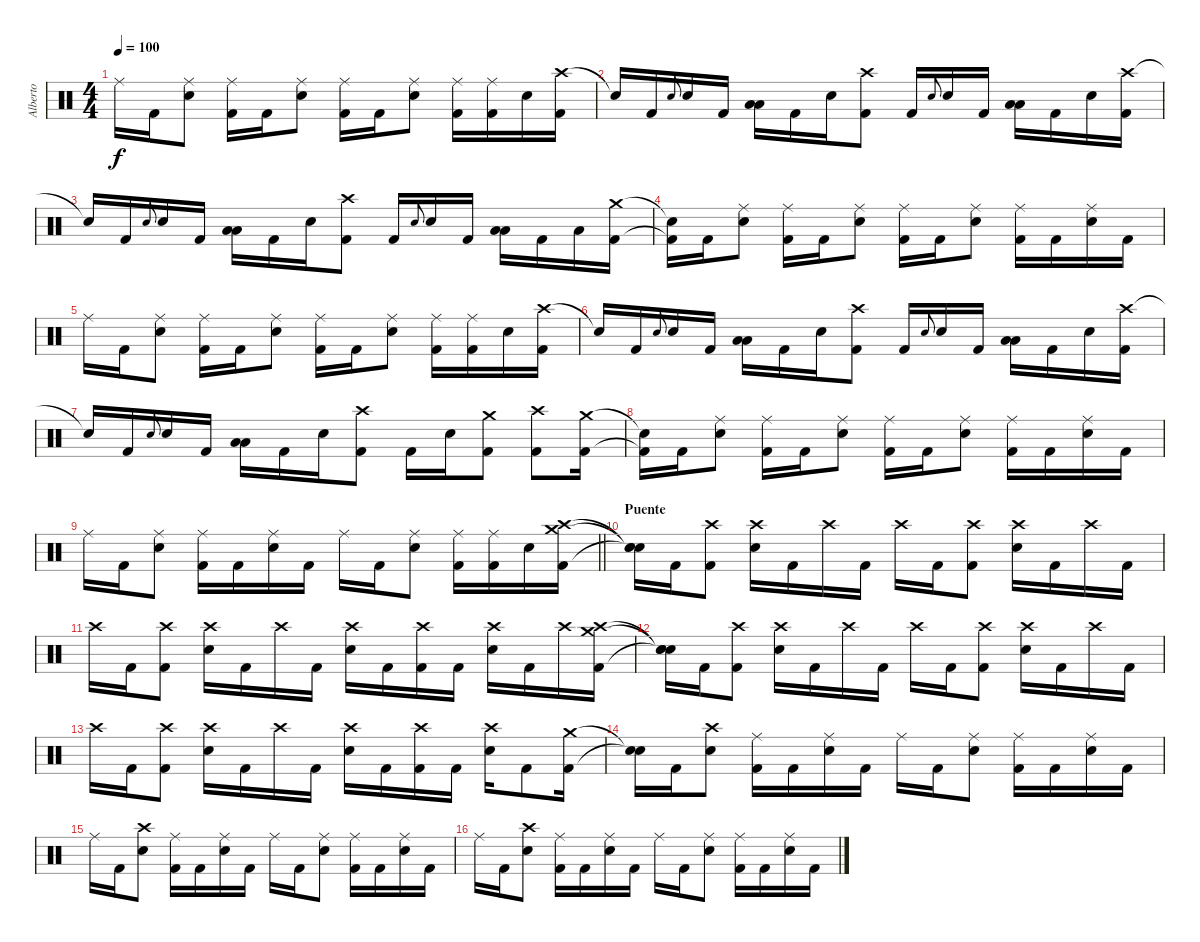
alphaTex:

\track ("Alberto" "Alberto") {instrument percussion}
\staff
\articulation defaults
\ts (4 4)
\tempo 100
\clef neutral
\ks c "Ride (middle)".16{dy f} "Kick (hit) 2".16
("Ride (middle)" "Electric Snare (hit)").8 ("Ride (middle)" "Kick (hit) 2").16 "Kick (hit) 2".16 ("Ride (middle)" "Electric Snare (hit)").8 ("Ride (middle)" "Kick (hit) 2").16 "Kick (hit) 2".16 ("Ride (middle)" "Electric Snare (hit)").8 ("Ride (middle)" "Kick (hit) 2").16 ("Ride (middle)" "Kick (hit) 2").16 "Electric Snare (hit)".16 ("Crash high (hit)" "Kick (hit) 2").16 |
"Snare (hit)"{t}.16 "Kick (hit) 2".16 "Electric Snare (hit)".8{gr onbeat} "Electric Snare (hit)".16 "Kick (hit) 2".16 ("Low Tom (hit)" "Low Floor Tom (hit)").16 "Kick (hit) 2".16 "Electric Snare (hit)".16 ("Crash high (hit)" "Kick (hit) 2").8 "Kick (hit) 2".16 "Electric Snare (hit)".8{gr onbeat} "Electric Snare (hit)".16 "Kick (hit) 2".16 ("Low Tom (hit)" "Low Floor Tom (hit)").16 "Kick (hit) 2".16 "Electric Snare (hit)".16 ("Crash high (hit)" "Kick (hit) 2").16 |
"Snare (hit)"{t}.16 "Kick (hit) 2".16 "Electric Snare (hit)".8{gr onbeat} "Electric Snare (hit)".16 "Kick (hit) 2".16 ("Low Tom (hit)" "Low Floor Tom (hit)").16 "Kick (hit) 2".16 "Electric Snare (hit)".16 ("Crash high (hit)" "Kick (hit) 2").8 "Kick (hit) 2".16 "Electric Snare (hit)".8{gr onbeat} "Electric Snare (hit)".16 "Kick (hit) 2".16 ("Low Tom (hit)" "Low Floor Tom (hit)").16 "Kick (hit) 2".16 "Low Tom (hit)".16 ("Crash medium (hit)" "Kick (hit) 2").16 |
("Snare (hit)"{t} "Kick (hit) 2"{t}).16 "Kick (hit) 2".16 ("Ride (middle)" "Electric Snare (hit)").8 ("Ride (middle)" "Kick (hit) 2").16 "Kick (hit) 2".16 ("Ride (middle)" "Electric Snare (hit)").8 ("Ride (middle)" "Kick (hit) 2").16 "Kick (hit) 2".16 ("Ride (middle)" "Electric Snare (hit)").8 ("Ride (middle)" "Kick (hit) 2").16 "Kick (hit) 2".16 ("Ride (middle)" "Electric Snare (hit)").16 "Kick (hit) 2".16 |
"Ride (middle)".16 "Kick (hit) 2".16 ("Ride (middle)" "Electric Snare (hit)").8 ("Ride (middle)" "Kick (hit) 2").16 "Kick (hit) 2".16 ("Ride (middle)" "Electric Snare (hit)").8 ("Ride (middle)" "Kick (hit) 2").16 "Kick (hit) 2".16 ("Ride (middle)" "Electric Snare (hit)").8 ("Ride (middle)" "Kick (hit) 2").16 ("Ride (middle)" "Kick (hit) 2").16 "Electric Snare (hit)".16 ("Crash high (hit)" "Kick (hit) 2").16 |
"Snare (hit)"{t}.16 "Kick (hit) 2".16 "Electric Snare (hit)".8{gr onbeat} "Electric Snare (hit)".16 "Kick (hit) 2".16 ("Low Tom (hit)" "Low Floor Tom (hit)").16 "Kick (hit) 2".16 "Electric Snare (hit)".16 ("Crash high (hit)" "Kick (hit) 2").8 "Kick (hit) 2".16 "Electric Snare (hit)".8{gr onbeat} "Electric Snare (hit)".16 "Kick (hit) 2".16 ("Low Tom (hit)" "Low Floor Tom (hit)").16 "Kick (hit) 2".16 "Electric Snare (hit)".16 ("Crash high (hit)" "Kick (hit) 2").16 |
"Snare (hit)"{t}.16 "Kick (hit) 2".16 "Electric Snare (hit)".8{gr onbeat} "Electric Snare (hit)".16 "Kick (hit) 2".16 ("Low Tom (hit)" "Low Floor Tom (hit)").16 "Kick (hit) 2".16 "Electric Snare (hit)".16 ("Crash high (hit)" "Kick (hit) 2").8 "Kick (hit) 2".16 "Electric Snare (hit)".16 ("Crash medium (hit)" "Kick (hit) 2").8 ("Crash high (hit)" "Kick (hit) 2").8 ("Crash medium (hit)" "Kick (hit) 2").16 |
("Snare (hit)"{t} "Kick (hit) 2"{t}).16 "Kick (hit) 2".16 ("Ride (middle)" "Electric Snare (hit)").8 ("Ride (middle)" "Kick (hit) 2").16 "Kick (hit) 2".16 ("Ride (middle)" "Electric Snare (hit)").8 ("Ride (middle)" "Kick (hit) 2").16 "Kick (hit) 2".16 ("Ride (middle)" "Electric Snare (hit)").8 ("Ride (middle)" "Kick (hit) 2").16 "Kick (hit) 2".16 ("Ride (middle)" "Electric Snare (hit)").16 "Kick (hit) 2".16 |
\barLineRight lightlight "Ride (middle)".16 "Kick (hit) 2".16
("Ride (middle)" "Electric Snare (hit)").8 ("Ride (middle)" "Kick (hit) 2").16 "Kick (hit) 2".16 ("Ride (middle)" "Electric Snare (hit)").16 "Kick (hit) 2".16 "Ride (middle)".16 "Kick (hit) 2".16 ("Ride (middle)" "Electric Snare (hit)").8 ("Ride (middle)" "Kick (hit) 2").16 ("Ride (middle)" "Kick (hit) 2").16 "Electric Snare (hit)".16 ("Crash medium (hit)" "Crash high (hit)" "Kick (hit) 2").16 |
\section ("" "Puente")
("Snare (hit)"{t} "Snare (hit)"{t} "Snare (hit)"{t}).16 "Kick (hit) 2".16 ("Crash high (hit)" "Kick (hit) 2").8 ("Crash high (hit)" "Electric Snare (hit)").16 "Kick (hit) 2".16 "Crash high (hit)".16 "Kick (hit) 2".16 "Crash high (hit)".16 "Kick (hit) 2".16 ("Crash high (hit)" "Kick (hit) 2").8 ("Crash high (hit)" "Electric Snare (hit)").16 "Kick (hit) 2".16 "Crash high (hit)".16 "Kick (hit) 2".16 |
"Crash high (hit)".16 "Kick (hit) 2".16 ("Crash high (hit)" "Kick (hit) 2").8 ("Crash high (hit)" "Electric Snare (hit)").16 "Kick (hit) 2".16 "Crash high (hit)".16 "Kick (hit) 2".16 ("Crash high (hit)" "Electric Snare (hit)").16 "Kick (hit) 2".16 ("Crash high (hit)" "Kick (hit) 2").16 "Kick (hit) 2".16 ("Crash high (hit)" "Electric Snare (hit)").16 "Kick (hit) 2".16 "Crash high (hit)".16 ("Crash medium (hit)" "Crash high (hit)" "Kick (hit) 2").16 |
("Snare (hit)"{t} "Snare (hit)"{t} "Snare (hit)"{t}).16 "Kick (hit) 2".16 ("Crash high (hit)" "Kick (hit) 2").8 ("Crash high (hit)" "Electric Snare (hit)").16 "Kick (hit) 2".16 "Crash high (hit)".16 "Kick (hit) 2".16 "Crash high (hit)".16 "Kick (hit) 2".16 ("Crash high (hit)" "Kick (hit) 2").8 ("Crash high (hit)" "Electric Snare (hit)").16 "Kick (hit) 2".16 "Crash high (hit)".16 "Kick (hit) 2".16 |
"Crash high (hit)".16 "Kick (hit) 2".16 ("Crash high (hit)" "Kick (hit) 2").8 ("Crash high (hit)" "Electric Snare (hit)").16 "Kick (hit) 2".16 "Crash high (hit)".16 "Kick (hit) 2".16 ("Crash high (hit)" "Electric Snare (hit)").16 "Kick (hit) 2".16 ("Crash high (hit)" "Kick (hit) 2").16 "Kick (hit) 2".16 ("Crash high (hit)" "Electric Snare (hit)").16 "Kick (hit) 2".8 ("Crash medium (hit)" "Kick (hit) 2").16 |
("Snare (hit)"{t} "Snare (hit)"{t}).16 "Kick (hit) 2".16 ("Crash high (hit)" "Electric Snare (hit)").8 ("Ride (middle)" "Kick (hit) 2").16 "Kick (hit) 2".16 ("Ride (middle)" "Electric Snare (hit)").16 "Kick (hit) 2".16 "Ride (middle)".16 "Kick (hit) 2".16 ("Ride (middle)" "Electric Snare (hit)").8 ("Ride (middle)" "Kick (hit) 2").16 "Kick (hit) 2".16 ("Ride (middle)" "Electric Snare (hit)").16 "Kick (hit) 2".16 |
"Ride (middle)".16 "Kick (hit) 2".16 ("Crash high (hit)" "Electric Snare (hit)").8 ("Ride (middle)" "Kick (hit) 2").16 "Kick (hit) 2".16 ("Ride (middle)" "Electric Snare (hit)").16 "Kick (hit) 2".16 "Ride (middle)".16 "Kick (hit) 2".16 ("Ride (middle)" "Electric Snare (hit)").8 ("Ride (middle)" "Kick (hit) 2").16 "Kick (hit) 2".16 ("Ride (middle)" "Electric Snare (hit)").16 "Kick (hit) 2".16 |
"Ride (middle)".16 "Kick (hit) 2".16 ("Crash high (hit)" "Electric Snare (hit)").8 ("Ride (middle)" "Kick (hit) 2").16 "Kick (hit) 2".16 ("Ride (middle)" "Electric Snare (hit)").16 "Kick (hit) 2".16 "Ride (middle)".16 "Kick (hit) 2".16 ("Ride (middle)" "Electric Snare (hit)").8 ("Ride (middle)" "Kick (hit) 2").16 "Kick (hit) 2".16 ("Ride (middle)" "Electric Snare (hit)").16 "Kick (hit) 2".16
